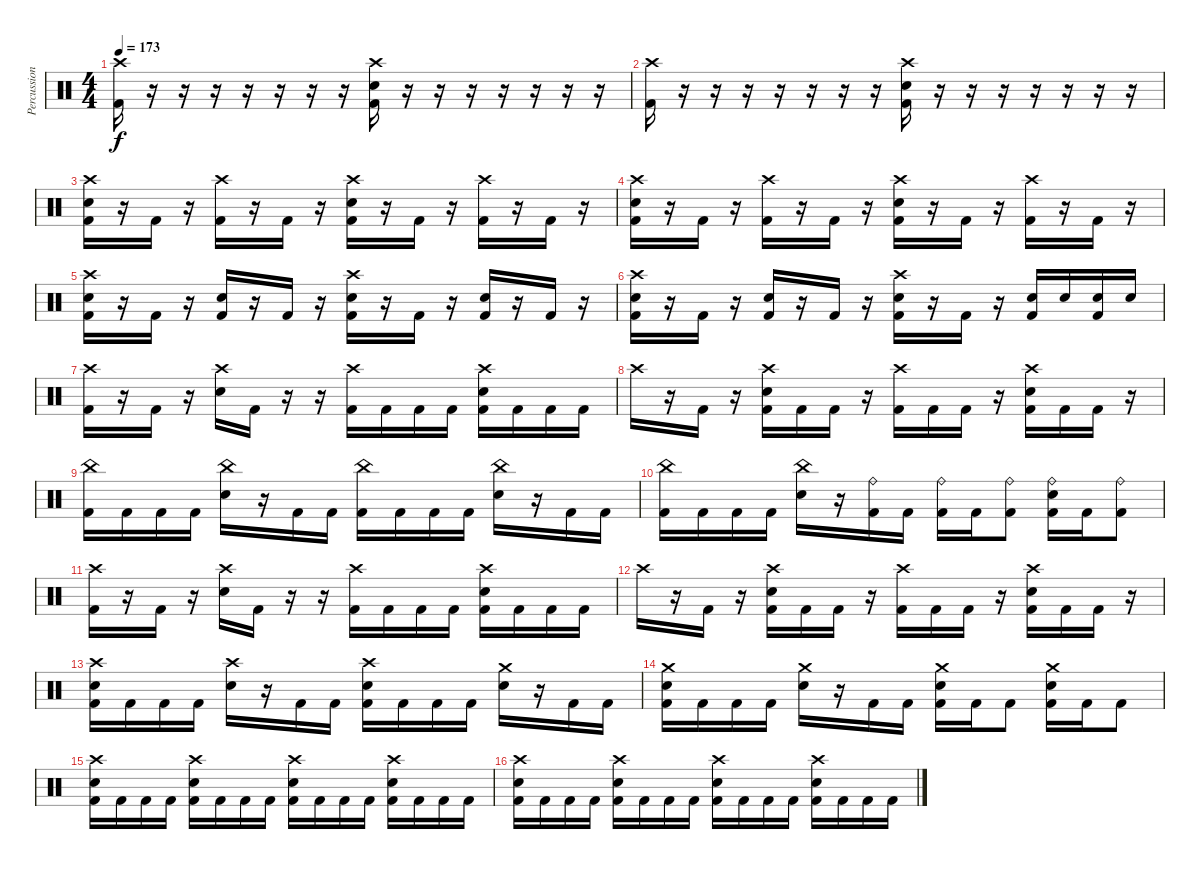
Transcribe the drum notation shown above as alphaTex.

\track ("Percussion" "Percussion") {instrument percussion}
\staff {score}
\articulation defaults
\ts (4 4)
\tempo 173
\clef neutral
\ks c
("Crash high (hit)" "Kick (hit) 2").16{dy f} r.16 r.16 r.16 r.16 r.16 r.16 r.16 ("Crash high (hit)" "Electric Snare (hit)" "Kick (hit) 2").16 r.16 r.16 r.16 r.16 r.16 r.16 r.16 |
("Crash high (hit)" "Kick (hit) 2").16 r.16 r.16 r.16 r.16 r.16 r.16 r.16 ("Crash high (hit)" "Electric Snare (hit)" "Kick (hit) 2").16 r.16 r.16 r.16 r.16 r.16 r.16 r.16 |
("Crash high (hit)" "Electric Snare (hit)" "Kick (hit) 2").16 r.16 "Kick (hit) 2".16 r.16 ("Crash high (hit)" "Kick (hit) 2").16 r.16 "Kick (hit) 2".16 r.16 ("Crash high (hit)" "Electric Snare (hit)" "Kick (hit) 2").16 r.16 "Kick (hit) 2".16 r.16 ("Crash high (hit)" "Kick (hit) 2").16 r.16 "Kick (hit) 2".16 r.16 |
("Crash high (hit)" "Electric Snare (hit)" "Kick (hit) 2").16 r.16 "Kick (hit) 2".16 r.16 ("Crash high (hit)" "Kick (hit) 2").16 r.16 "Kick (hit) 2".16 r.16 ("Crash high (hit)" "Electric Snare (hit)" "Kick (hit) 2").16 r.16 "Kick (hit) 2".16 r.16 ("Crash high (hit)" "Kick (hit) 2").16 r.16 "Kick (hit) 2".16 r.16 |
("Crash high (hit)" "Electric Snare (hit)" "Kick (hit) 2").16 r.16 "Kick (hit) 2".16 r.16 ("Electric Snare (hit)" "Kick (hit) 2").16 r.16 "Kick (hit) 2".16 r.16 ("Crash high (hit)" "Electric Snare (hit)" "Kick (hit) 2").16 r.16 "Kick (hit) 2".16 r.16 ("Electric Snare (hit)" "Kick (hit) 2").16 r.16 "Kick (hit) 2".16 r.16 |
("Crash high (hit)" "Electric Snare (hit)" "Kick (hit) 2").16 r.16 "Kick (hit) 2".16 r.16 ("Electric Snare (hit)" "Kick (hit) 2").16 r.16 "Kick (hit) 2".16 r.16 ("Crash high (hit)" "Electric Snare (hit)" "Kick (hit) 2").16 r.16 "Kick (hit) 2".16 r.16 ("Electric Snare (hit)" "Kick (hit) 2").16 "Electric Snare (hit)".16 ("Electric Snare (hit)" "Kick (hit) 2").16 "Electric Snare (hit)".16 |
("Crash high (hit)" "Kick (hit) 2").16 r.16 "Kick (hit) 2".16 r.16 ("Crash high (hit)" "Electric Snare (hit)").16 "Kick (hit) 2".16 r.16 r.16 ("Crash high (hit)" "Kick (hit) 2").16 "Kick (hit) 2".16 "Kick (hit) 2".16 "Kick (hit) 2".16 ("Crash high (hit)" "Electric Snare (hit)" "Kick (hit) 2").16 "Kick (hit) 2".16 "Kick (hit) 2".16 "Kick (hit) 2".16 |
"Crash high (hit)".16 r.16 "Kick (hit) 2".16 r.16 ("Crash high (hit)" "Electric Snare (hit)" "Kick (hit) 2").16 "Kick (hit) 2".16 "Kick (hit) 2".16 r.16 ("Crash high (hit)" "Kick (hit) 2").16 "Kick (hit) 2".16 "Kick (hit) 2".16 r.16 ("Crash high (hit)" "Electric Snare (hit)" "Kick (hit) 2").16 "Kick (hit) 2".16 "Kick (hit) 2".16 r.16 |
("China (hit)" "Kick (hit) 2").16 "Kick (hit) 2".16 "Kick (hit) 2".16 "Kick (hit) 2".16 ("China (hit)" "Electric Snare (hit)").16 r.16 "Kick (hit) 2".16 "Kick (hit) 2".16 ("China (hit)" "Kick (hit) 2").16 "Kick (hit) 2".16 "Kick (hit) 2".16 "Kick (hit) 2".16 ("China (hit)" "Electric Snare (hit)").16 r.16 "Kick (hit) 2".16 "Kick (hit) 2".16 |
("China (hit)" "Kick (hit) 2").16 "Kick (hit) 2".16 "Kick (hit) 2".16 "Kick (hit) 2".16 ("China (hit)" "Electric Snare (hit)").16 r.16 ("Ride (bell)" "Kick (hit) 2").16 "Kick (hit) 2".16 ("Ride (bell)" "Kick (hit) 2").16 "Kick (hit) 2".16 ("Ride (bell)" "Kick (hit) 2").8 ("Ride (bell)" "Electric Snare (hit)" "Kick (hit) 2").16 "Kick (hit) 2".16 ("Ride (bell)" "Kick (hit) 2").8 |
("Crash high (hit)" "Kick (hit) 2").16 r.16 "Kick (hit) 2".16 r.16 ("Crash high (hit)" "Electric Snare (hit)").16 "Kick (hit) 2".16 r.16 r.16 ("Crash high (hit)" "Kick (hit) 2").16 "Kick (hit) 2".16 "Kick (hit) 2".16 "Kick (hit) 2".16 ("Crash high (hit)" "Electric Snare (hit)" "Kick (hit) 2").16 "Kick (hit) 2".16 "Kick (hit) 2".16 "Kick (hit) 2".16 |
"Crash high (hit)".16 r.16 "Kick (hit) 2".16 r.16 ("Crash high (hit)" "Electric Snare (hit)" "Kick (hit) 2").16 "Kick (hit) 2".16 "Kick (hit) 2".16 r.16 ("Crash high (hit)" "Kick (hit) 2").16 "Kick (hit) 2".16 "Kick (hit) 2".16 r.16 ("Crash high (hit)" "Electric Snare (hit)" "Kick (hit) 2").16 "Kick (hit) 2".16 "Kick (hit) 2".16 r.16 |
("Crash high (hit)" "Electric Snare (hit)" "Kick (hit) 2").16 "Kick (hit) 2".16 "Kick (hit) 2".16 "Kick (hit) 2".16 ("Crash high (hit)" "Electric Snare (hit)").16 r.16 "Kick (hit) 2".16 "Kick (hit) 2".16 ("Crash high (hit)" "Electric Snare (hit)" "Kick (hit) 2").16 "Kick (hit) 2".16 "Kick (hit) 2".16 "Kick (hit) 2".16 ("Crash medium (hit)" "Electric Snare (hit)").16 r.16 "Kick (hit) 2".16 "Kick (hit) 2".16 |
("Crash medium (hit)" "Electric Snare (hit)" "Kick (hit) 2").16 "Kick (hit) 2".16 "Kick (hit) 2".16 "Kick (hit) 2".16 ("Crash medium (hit)" "Electric Snare (hit)").16 r.16 "Kick (hit) 2".16 "Kick (hit) 2".16 ("Crash medium (hit)" "Electric Snare (hit)" "Kick (hit) 2").16 "Kick (hit) 2".16 "Kick (hit) 2".8 ("Crash medium (hit)" "Electric Snare (hit)" "Kick (hit) 2").16 "Kick (hit) 2".16 "Kick (hit) 2".8 |
("Crash high (hit)" "Electric Snare (hit)" "Kick (hit) 2").16 "Kick (hit) 2".16 "Kick (hit) 2".16 "Kick (hit) 2".16 ("Crash high (hit)" "Electric Snare (hit)" "Kick (hit) 2").16 "Kick (hit) 2".16 "Kick (hit) 2".16 "Kick (hit) 2".16 ("Crash high (hit)" "Electric Snare (hit)" "Kick (hit) 2").16 "Kick (hit) 2".16 "Kick (hit) 2".16 "Kick (hit) 2".16 ("Crash high (hit)" "Electric Snare (hit)" "Kick (hit) 2").16 "Kick (hit) 2".16 "Kick (hit) 2".16 "Kick (hit) 2".16 |
("Crash high (hit)" "Electric Snare (hit)" "Kick (hit) 2").16 "Kick (hit) 2".16 "Kick (hit) 2".16 "Kick (hit) 2".16 ("Crash high (hit)" "Electric Snare (hit)" "Kick (hit) 2").16 "Kick (hit) 2".16 "Kick (hit) 2".16 "Kick (hit) 2".16 ("Crash high (hit)" "Electric Snare (hit)" "Kick (hit) 2").16 "Kick (hit) 2".16 "Kick (hit) 2".16 "Kick (hit) 2".16 ("Crash high (hit)" "Electric Snare (hit)" "Kick (hit) 2").16 "Kick (hit) 2".16 "Kick (hit) 2".16 "Kick (hit) 2".16
